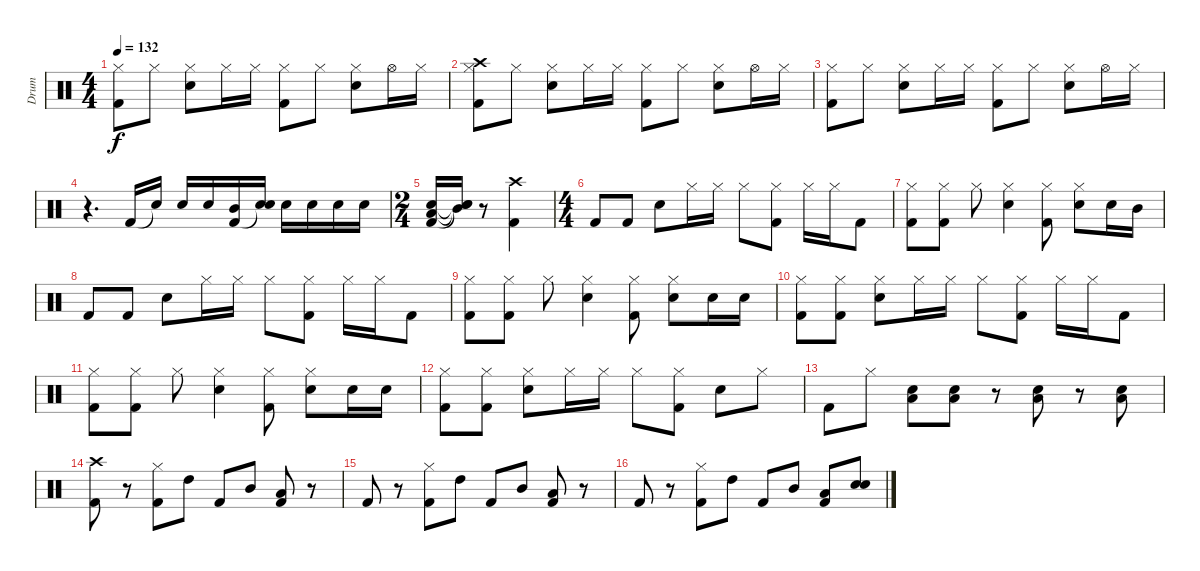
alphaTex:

\track ("Drum" "Drum") {instrument percussion}
\staff {score}
\articulation defaults
\ts (4 4)
\tempo 132
\clef neutral
\ks c
("Hi-Hat (closed)" "Kick (hit) 2").8{dy f} "Hi-Hat (closed)".8 ("Hi-Hat (closed)" "Snare (hit) 2").8 "Hi-Hat (closed)".16 "Hi-Hat (closed)".16 ("Hi-Hat (closed)" "Kick (hit) 2").8 "Hi-Hat (closed)".8 ("Hi-Hat (closed)" "Snare (hit) 2").8 "Hi-Hat (open)".16 "Hi-Hat (closed)".16 |
("Crash high (hit)" "Hi-Hat (closed)" "Kick (hit) 2").8 "Hi-Hat (closed)".8 ("Hi-Hat (closed)" "Snare (hit) 2").8 "Hi-Hat (closed)".16 "Hi-Hat (closed)".16 ("Hi-Hat (closed)" "Kick (hit) 2").8 "Hi-Hat (closed)".8 ("Hi-Hat (closed)" "Snare (hit) 2").8 "Hi-Hat (open)".16 "Hi-Hat (closed)".16 |
("Hi-Hat (closed)" "Kick (hit) 2").8 "Hi-Hat (closed)".8 ("Hi-Hat (closed)" "Snare (hit) 2").8 "Hi-Hat (closed)".16 "Hi-Hat (closed)".16 ("Hi-Hat (closed)" "Kick (hit) 2").8 "Hi-Hat (closed)".8 ("Hi-Hat (closed)" "Snare (hit) 2").8 "Hi-Hat (open)".16 "Hi-Hat (closed)".16 |
r.4{d} "Kick (hit) 2".16 "Snare (hit)"{t}.16 "Snare (hit) 2".16 "Snare (hit) 2".16 ("Mid Tom (hit)" "Kick (hit) 2").16 ("Snare (hit) 2" "Snare (hit)"{t}).16 "Snare (hit) 2".16 "Snare (hit) 2".16 "Snare (hit) 2".16 "Snare (hit) 2".16 |
\ts (2 4)
("Low Tom (hit)" "Snare (hit) 2" "Kick (hit) 2").16 ("Mid Tom (hit)"{t} "Snare (hit)"{t} "Snare (hit)"{t}).16 r.8 ("Crash high (hit)" "Kick (hit) 2").4 |
\ts (4 4)
"Kick (hit) 2".8 "Kick (hit) 2".8 "Snare (hit) 2".8 "Hi-Hat (closed)".16 "Hi-Hat (closed)".16 "Hi-Hat (closed)".8 ("Hi-Hat (closed)" "Kick (hit) 2").8 "Hi-Hat (closed)".16 "Hi-Hat (closed)".16 "Kick (hit) 2".8 |
("Hi-Hat (closed)" "Kick (hit) 2").8 ("Hi-Hat (closed)" "Kick (hit) 2").8 "Hi-Hat (closed)".8 ("Hi-Hat (closed)" "Snare (hit) 2").4 ("Hi-Hat (closed)" "Kick (hit) 2").8 ("Hi-Hat (closed)" "Snare (hit) 2").8 "Electric Snare (hit)".16 "Mid Tom (hit)".16 |
"Kick (hit) 2".8 "Kick (hit) 2".8 "Snare (hit) 2".8 "Hi-Hat (closed)".16 "Hi-Hat (closed)".16 "Hi-Hat (closed)".8 ("Hi-Hat (closed)" "Kick (hit) 2").8 "Hi-Hat (closed)".16 "Hi-Hat (closed)".16 "Kick (hit) 2".8 |
("Hi-Hat (closed)" "Kick (hit) 2").8 ("Hi-Hat (closed)" "Kick (hit) 2").8 "Hi-Hat (closed)".8 ("Hi-Hat (closed)" "Snare (hit) 2").4 ("Hi-Hat (closed)" "Kick (hit) 2").8 ("Hi-Hat (closed)" "Snare (hit) 2").8 "Electric Snare (hit)".16 "Electric Snare (hit)".16 |
("Hi-Hat (closed)" "Kick (hit) 2").8 ("Hi-Hat (closed)" "Kick (hit) 2").8 ("Hi-Hat (closed)" "Snare (hit) 2").8 "Hi-Hat (closed)".16 "Hi-Hat (closed)".16 "Hi-Hat (closed)".8 ("Hi-Hat (closed)" "Kick (hit) 2").8 "Hi-Hat (closed)".16 "Hi-Hat (closed)".16 "Kick (hit) 2".8 |
("Hi-Hat (closed)" "Kick (hit) 2").8 ("Hi-Hat (closed)" "Kick (hit) 2").8 "Hi-Hat (closed)".8 ("Hi-Hat (closed)" "Snare (hit) 2").4 ("Hi-Hat (closed)" "Kick (hit) 2").8 ("Hi-Hat (closed)" "Snare (hit) 2").8 "Snare (hit) 2".16 "Snare (hit) 2".16 |
("Hi-Hat (closed)" "Kick (hit) 2").8 ("Hi-Hat (closed)" "Kick (hit) 2").8 ("Hi-Hat (closed)" "Snare (hit) 2").8 "Hi-Hat (closed)".16 "Hi-Hat (closed)".16 "Hi-Hat (closed)".8 ("Hi-Hat (closed)" "Kick (hit) 2").8 "Snare (hit) 2".8 "Hi-Hat (closed)".8 |
"Kick (hit) 2".8 "Hi-Hat (closed)".8 ("Snare (hit) 2" "Low Tom (hit)").8 ("Snare (hit) 2" "Low Tom (hit)").8 r.8 ("Electric Snare (hit)" "Low Tom (hit)").8 r.8 ("Electric Snare (hit)" "Low Tom (hit)").8 |
("Crash high (hit)" "Kick (hit) 2").8 r.8 ("Hi-Hat (closed)" "Kick (hit) 2").8 "High Tom (hit)".8 "Kick (hit) 2".8 "Mid Tom (hit)".8 ("Low Tom (hit)" "Kick (hit) 2").8 r.8 |
"Kick (hit) 2".8 r.8 ("Hi-Hat (closed)" "Kick (hit) 2").8 "High Tom (hit)".8 "Kick (hit) 2".8 "Mid Tom (hit)".8 ("Low Tom (hit)" "Kick (hit) 2").8 r.8 |
"Kick (hit) 2".8 r.8 ("Hi-Hat (closed)" "Kick (hit) 2").8 "High Tom (hit)".8 "Kick (hit) 2".8 "Mid Tom (hit)".8 ("Low Tom (hit)" "Kick (hit) 2").8 ("Electric Snare (hit)" "Electric Snare (hit)").8{bu 480}
